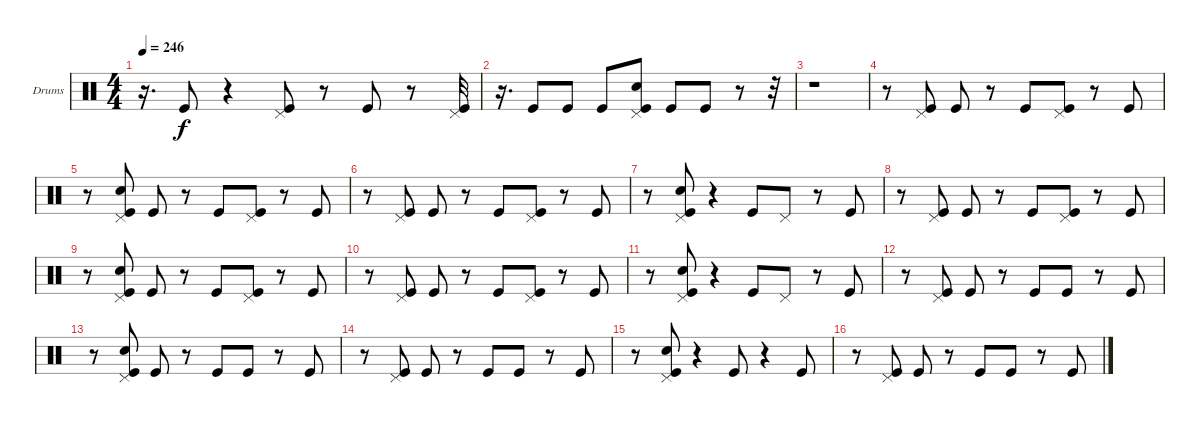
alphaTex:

\bracketExtendMode groupsimilarinstruments
\firstSystemTrackNameOrientation horizontal
\otherSystemsTrackNameOrientation horizontal
\track ("Drumkit" "Drums") {instrument percussion}
\staff {score}
\articulation defaults
\ts (4 4)
\tempo 246
\clef neutral
\ks c
r.16{d dy f} "Kick (hit)".8 r.4 ("Pedal Hi-Hat (hit)" "Kick (hit)").8 r.8 "Kick (hit)".8 r.8 ("Kick (hit)" "Pedal Hi-Hat (hit)").32 |
r.16{d} "Kick (hit)".8 "Kick (hit)".8 "Kick (hit)".8 ("Pedal Hi-Hat (hit)" "Snare (hit) 2" "Kick (hit)").8 "Kick (hit)".8 "Kick (hit)".8 r.8 r.32 |
r.1 |
r.8 ("Pedal Hi-Hat (hit)" "Kick (hit)").8 "Kick (hit)".8 r.8 "Kick (hit)".8 ("Kick (hit)" "Pedal Hi-Hat (hit)").8 r.8 "Kick (hit)".8 |
r.8 ("Snare (hit) 2" "Pedal Hi-Hat (hit)" "Kick (hit)").8 "Kick (hit)".8 r.8 "Kick (hit)".8 ("Pedal Hi-Hat (hit)" "Kick (hit)").8 r.8 "Kick (hit)".8 |
r.8 ("Pedal Hi-Hat (hit)" "Kick (hit)").8 "Kick (hit)".8 r.8 "Kick (hit)".8 ("Pedal Hi-Hat (hit)" "Kick (hit)").8 r.8 "Kick (hit)".8 |
r.8 ("Snare (hit) 2" "Pedal Hi-Hat (hit)" "Kick (hit)").8 r.4 "Kick (hit)".8 "Pedal Hi-Hat (hit)".8 r.8 "Kick (hit)".8 |
r.8 ("Kick (hit)" "Pedal Hi-Hat (hit)").8 "Kick (hit)".8 r.8 "Kick (hit)".8 ("Pedal Hi-Hat (hit)" "Kick (hit)").8 r.8 "Kick (hit)".8 |
r.8 ("Kick (hit)" "Pedal Hi-Hat (hit)" "Snare (hit) 2").8 "Kick (hit)".8 r.8 "Kick (hit)".8 ("Pedal Hi-Hat (hit)" "Kick (hit)").8 r.8 "Kick (hit)".8 |
r.8 ("Kick (hit)" "Pedal Hi-Hat (hit)").8 "Kick (hit)".8 r.8 "Kick (hit)".8 ("Kick (hit)" "Pedal Hi-Hat (hit)").8 r.8 "Kick (hit)".8 |
r.8 ("Kick (hit)" "Pedal Hi-Hat (hit)" "Snare (hit) 2").8 r.4 "Kick (hit)".8 "Pedal Hi-Hat (hit)".8 r.8 "Kick (hit)".8 |
r.8 ("Kick (hit)" "Pedal Hi-Hat (hit)").8 "Kick (hit)".8 r.8 "Kick (hit)".8 "Kick (hit)".8 r.8 "Kick (hit)".8 |
r.8 ("Snare (hit) 2" "Pedal Hi-Hat (hit)" "Kick (hit)").8 "Kick (hit)".8 r.8 "Kick (hit)".8 "Kick (hit)".8 r.8 "Kick (hit)".8 |
r.8 ("Pedal Hi-Hat (hit)" "Kick (hit)").8 "Kick (hit)".8 r.8 "Kick (hit)".8 "Kick (hit)".8 r.8 "Kick (hit)".8 |
r.8 ("Snare (hit) 2" "Pedal Hi-Hat (hit)" "Kick (hit)").8 r.4 "Kick (hit)".8 r.4 "Kick (hit)".8 |
r.8 ("Pedal Hi-Hat (hit)" "Kick (hit)").8 "Kick (hit)".8 r.8 "Kick (hit)".8 "Kick (hit)".8 r.8 "Kick (hit)".8
